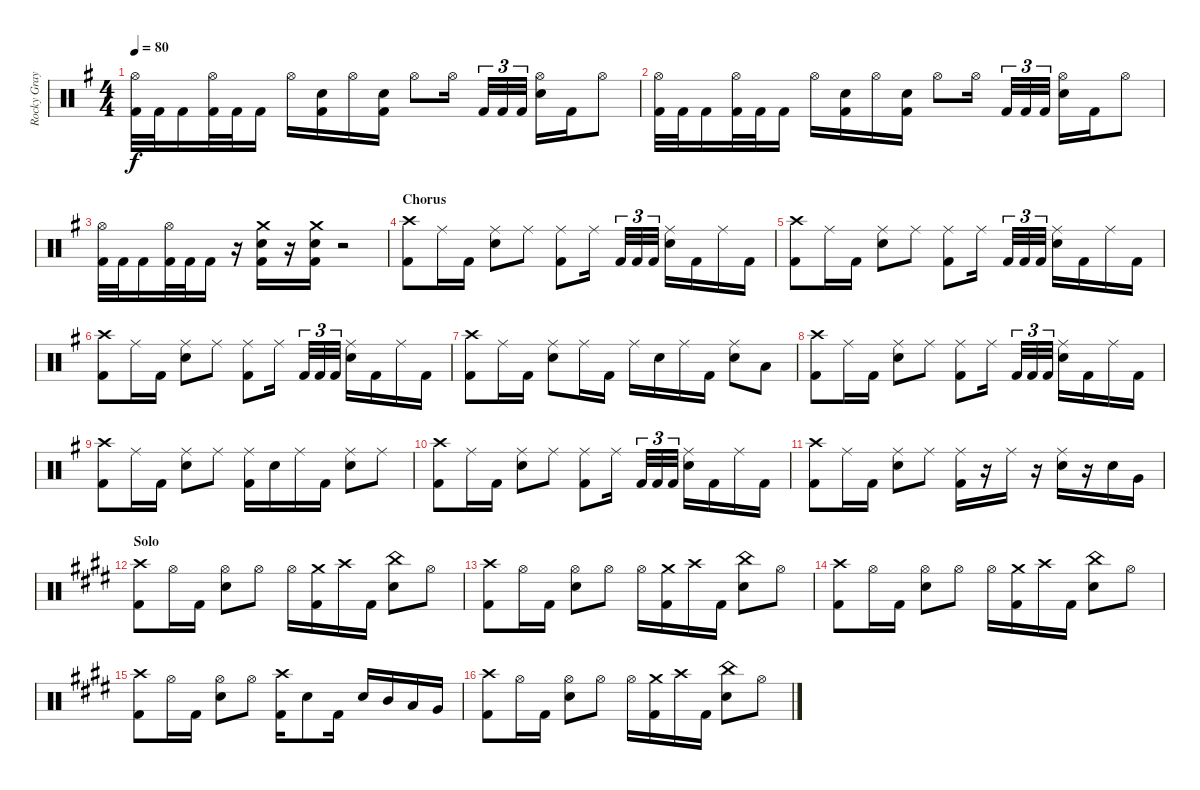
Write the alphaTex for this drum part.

\track ("Rocky Gray" "Rocky Gray") {instrument percussion}
\staff {score}
\articulation defaults
\ts (4 4)
\tempo 80
\clef neutral
\ks g
("Hi-Hat (open)" "Kick (hit) 2").32{dy f} "Kick (hit) 2".32 "Kick (hit) 2".16 ("Hi-Hat (open)" "Kick (hit) 2").32 "Kick (hit) 2".32 "Kick (hit) 2".16 "Hi-Hat (open)".16 ("Snare (hit) 2" "Kick (hit) 2").16 "Hi-Hat (open)".16 ("Snare (hit) 2" "Kick (hit) 2").16 "Hi-Hat (open)".8 "Hi-Hat (open)".16 "Kick (hit) 2".32{tu (3 2)} "Kick (hit) 2".32{tu (3 2)} "Kick (hit) 2".32{tu (3 2)} ("Hi-Hat (open)" "Snare (hit) 2").16 "Kick (hit) 2".16 "Hi-Hat (open)".8 |
("Hi-Hat (open)" "Kick (hit) 2").32 "Kick (hit) 2".32 "Kick (hit) 2".16 ("Hi-Hat (open)" "Kick (hit) 2").32 "Kick (hit) 2".32 "Kick (hit) 2".16 "Hi-Hat (open)".16 ("Snare (hit) 2" "Kick (hit) 2").16 "Hi-Hat (open)".16 ("Snare (hit) 2" "Kick (hit) 2").16 "Hi-Hat (open)".8 "Hi-Hat (open)".16 "Kick (hit) 2".32{tu (3 2)} "Kick (hit) 2".32{tu (3 2)} "Kick (hit) 2".32{tu (3 2)} ("Hi-Hat (open)" "Snare (hit) 2").16 "Kick (hit) 2".16 "Hi-Hat (open)".8 |
("Hi-Hat (open)" "Kick (hit) 2").32 "Kick (hit) 2".32 "Kick (hit) 2".16 ("Hi-Hat (open)" "Kick (hit) 2").32 "Kick (hit) 2".32 "Kick (hit) 2".16 r.16 ("Crash medium (hit)" "Snare (hit) 2" "Kick (hit) 2").16 r.16 ("Crash medium (hit)" "Snare (hit) 2" "Kick (hit) 2").16 r.2 |
\section ("" "Chorus")
("Crash high (hit)" "Kick (hit) 2").8 "Ride (middle)".16 "Kick (hit) 2".16 ("Ride (middle)" "Snare (hit) 2").8 "Ride (middle)".8 ("Ride (middle)" "Kick (hit) 2").8 "Ride (middle)".16 "Kick (hit) 2".32{tu (3 2)} "Kick (hit) 2".32{tu (3 2)} "Kick (hit) 2".32{tu (3 2)} ("Ride (middle)" "Snare (hit) 2").16 "Kick (hit) 2".16 "Ride (middle)".16 "Kick (hit) 2".16 |
("Crash high (hit)" "Kick (hit) 2").8 "Ride (middle)".16 "Kick (hit) 2".16 ("Ride (middle)" "Snare (hit) 2").8 "Ride (middle)".8 ("Ride (middle)" "Kick (hit) 2").8 "Ride (middle)".16 "Kick (hit) 2".32{tu (3 2)} "Kick (hit) 2".32{tu (3 2)} "Kick (hit) 2".32{tu (3 2)} ("Ride (middle)" "Snare (hit) 2").16 "Kick (hit) 2".16 "Ride (middle)".16 "Kick (hit) 2".16 |
("Crash high (hit)" "Kick (hit) 2").8 "Ride (middle)".16 "Kick (hit) 2".16 ("Ride (middle)" "Snare (hit) 2").8 "Ride (middle)".8 ("Ride (middle)" "Kick (hit) 2").8 "Ride (middle)".16 "Kick (hit) 2".32{tu (3 2)} "Kick (hit) 2".32{tu (3 2)} "Kick (hit) 2".32{tu (3 2)} ("Ride (middle)" "Snare (hit) 2").16 "Kick (hit) 2".16 "Ride (middle)".16 "Kick (hit) 2".16 |
("Crash high (hit)" "Kick (hit) 2").8 "Ride (middle)".16 "Kick (hit) 2".16 ("Ride (middle)" "Snare (hit) 2").8 "Ride (middle)".16 "Kick (hit) 2".16 "Ride (middle)".16 "Snare (hit) 2".16 "Ride (middle)".16 "Kick (hit) 2".16 ("Ride (middle)" "Snare (hit) 2").8 "Low Floor Tom (hit)".8 |
("Crash high (hit)" "Kick (hit) 2").8 "Ride (middle)".16 "Kick (hit) 2".16 ("Ride (middle)" "Snare (hit) 2").8 "Ride (middle)".8 ("Ride (middle)" "Kick (hit) 2").8 "Ride (middle)".16 "Kick (hit) 2".32{tu (3 2)} "Kick (hit) 2".32{tu (3 2)} "Kick (hit) 2".32{tu (3 2)} ("Ride (middle)" "Snare (hit) 2").16 "Kick (hit) 2".16 "Ride (middle)".16 "Kick (hit) 2".16 |
("Crash high (hit)" "Kick (hit) 2").8 "Ride (middle)".16 "Kick (hit) 2".16 ("Ride (middle)" "Snare (hit) 2").8 "Ride (middle)".8 ("Ride (middle)" "Kick (hit) 2").16 "Snare (hit) 2".16 "Ride (middle)".16 "Kick (hit) 2".16 ("Ride (middle)" "Snare (hit) 2").8 "Ride (middle)".8 |
("Crash high (hit)" "Kick (hit) 2").8 "Ride (middle)".16 "Kick (hit) 2".16 ("Ride (middle)" "Snare (hit) 2").8 "Ride (middle)".8 ("Ride (middle)" "Kick (hit) 2").8 "Ride (middle)".16 "Kick (hit) 2".32{tu (3 2)} "Kick (hit) 2".32{tu (3 2)} "Kick (hit) 2".32{tu (3 2)} ("Ride (middle)" "Snare (hit) 2").16 "Kick (hit) 2".16 "Ride (middle)".16 "Kick (hit) 2".16 |
("Crash high (hit)" "Kick (hit) 2").8 "Ride (middle)".16 "Kick (hit) 2".16 ("Ride (middle)" "Snare (hit) 2").8 "Ride (middle)".8 ("Ride (middle)" "Kick (hit) 2").16 r.16 "Ride (middle)".16 r.16 ("Ride (middle)" "Snare (hit) 2").16 r.16 "Snare (hit) 2".16 "Very Low Tom (hit)".16 |
\section ("" "Solo")
\ks e
("Crash high (hit)" "Kick (hit) 2").8 "Hi-Hat (open)".16 "Kick (hit) 2".16 ("Hi-Hat (open)" "Snare (hit) 2").8 "Hi-Hat (open)".8 "Hi-Hat (open)".16 ("Crash medium (hit)" "Kick (hit) 2").16 "Crash high (hit)".16 "Kick (hit) 2".16 ("China (hit)" "Snare (hit) 2").8 "Hi-Hat (open)".8 |
("Crash high (hit)" "Kick (hit) 2").8 "Hi-Hat (open)".16 "Kick (hit) 2".16 ("Hi-Hat (open)" "Snare (hit) 2").8 "Hi-Hat (open)".8 "Hi-Hat (open)".16 ("Crash medium (hit)" "Kick (hit) 2").16 "Crash high (hit)".16 "Kick (hit) 2".16 ("China (hit)" "Snare (hit) 2").8 "Hi-Hat (open)".8 |
("Crash high (hit)" "Kick (hit) 2").8 "Hi-Hat (open)".16 "Kick (hit) 2".16 ("Hi-Hat (open)" "Snare (hit) 2").8 "Hi-Hat (open)".8 "Hi-Hat (open)".16 ("Crash medium (hit)" "Kick (hit) 2").16 "Crash high (hit)".16 "Kick (hit) 2".16 ("China (hit)" "Snare (hit) 2").8 "Hi-Hat (open)".8 |
("Crash high (hit)" "Kick (hit) 2").8 "Hi-Hat (open)".16 "Kick (hit) 2".16 ("Hi-Hat (open)" "Snare (hit) 2").8 "Hi-Hat (open)".8 ("Crash high (hit)" "Kick (hit) 2").16 "Snare (hit) 2".8 "Kick (hit) 2".16 "Snare (hit) 2".16 "Mid Tom (hit)".16 "Low Tom (hit)".16 "Very Low Tom (hit)".16 |
("Crash high (hit)" "Kick (hit) 2").8 "Hi-Hat (open)".16 "Kick (hit) 2".16 ("Hi-Hat (open)" "Snare (hit) 2").8 "Hi-Hat (open)".8 "Hi-Hat (open)".16 ("Crash medium (hit)" "Kick (hit) 2").16 "Crash high (hit)".16 "Kick (hit) 2".16 ("China (hit)" "Snare (hit) 2").8 "Hi-Hat (open)".8
